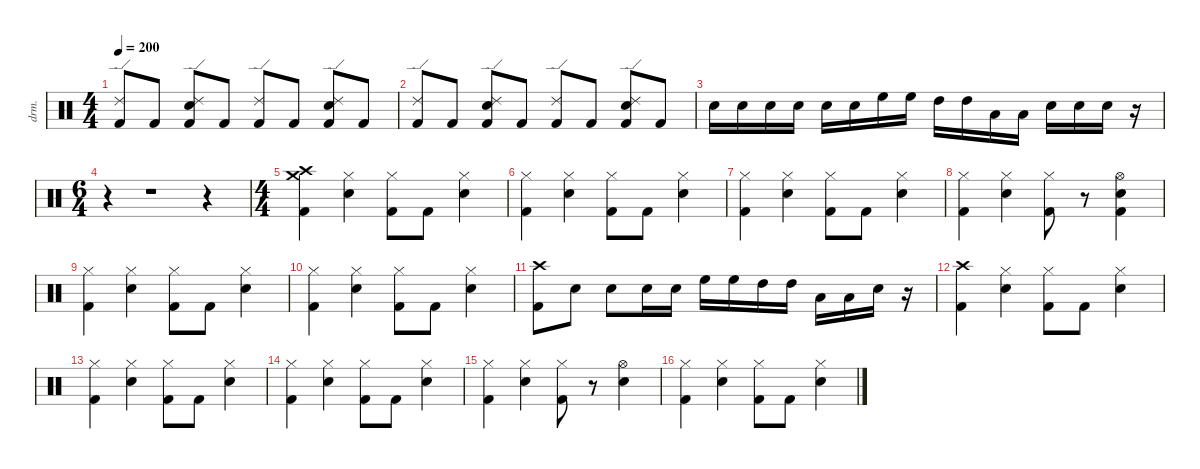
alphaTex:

\defaultSystemsLayout 4
\hideDynamics
\bracketExtendMode nobrackets
\track ("Drums" "drm.") {instrument percussion}
\staff {score}
\articulation defaults
\ts (4 4)
\tempo 200
\clef neutral
\ks c
("Ride (edge) 2" "Kick (hit) 2").8{dy f} "Kick (hit) 2".8 ("Ride (edge) 2" "Snare (hit) 2" "Kick (hit) 2").8 "Kick (hit) 2".8 ("Ride (edge) 2" "Kick (hit) 2").8 "Kick (hit) 2".8 ("Ride (edge) 2" "Snare (hit) 2" "Kick (hit) 2").8 "Kick (hit) 2".8 |
("Ride (edge) 2" "Kick (hit) 2").8 "Kick (hit) 2".8 ("Ride (edge) 2" "Snare (hit) 2" "Kick (hit) 2").8 "Kick (hit) 2".8 ("Ride (edge) 2" "Kick (hit) 2").8 "Kick (hit) 2".8 ("Ride (edge) 2" "Snare (hit) 2" "Kick (hit) 2").8 "Kick (hit) 2".8 |
"Snare (hit) 2".16{dy fff} "Snare (hit) 2".16 "Snare (hit) 2".16 "Snare (hit) 2".16{dy ff} "Snare (hit) 2".16 "Snare (hit) 2".16{dy f} "High Floor Tom (hit)".16{dy fff} "High Floor Tom (hit)".16 "High Tom (hit)".16 "High Tom (hit)".16 "Low Tom (hit)".16 "Low Tom (hit)".16 "Snare (hit) 2".16 "Snare (hit) 2".16 "Snare (hit) 2".16 r.16 |
\ts (6 4)
\beaming (8 6 6)
r.4 r.1 r.4 |
\ts (4 4)
\beaming (8 2 2 2 2)
("Crash high (hit)" "Crash medium (hit)" "Kick (hit) 2").4{dy mf} ("Hi-Hat (closed)" "Snare (hit) 2").4{dy f} ("Hi-Hat (closed)" "Kick (hit) 2").8 "Kick (hit) 2".8 ("Hi-Hat (closed)" "Snare (hit) 2").4 |
("Hi-Hat (closed)" "Kick (hit) 2").4 ("Hi-Hat (closed)" "Snare (hit) 2").4 ("Hi-Hat (closed)" "Kick (hit) 2").8 "Kick (hit) 2".8 ("Hi-Hat (closed)" "Snare (hit) 2").4 |
("Hi-Hat (closed)" "Kick (hit) 2").4 ("Hi-Hat (closed)" "Snare (hit) 2").4 ("Hi-Hat (closed)" "Kick (hit) 2").8 "Kick (hit) 2".8 ("Hi-Hat (closed)" "Snare (hit) 2").4 |
("Hi-Hat (closed)" "Kick (hit) 2").4 ("Hi-Hat (closed)" "Snare (hit) 2").4 ("Hi-Hat (closed)" "Kick (hit) 2").8 r.8 ("Hi-Hat (open)" "Snare (hit) 2" "Kick (hit) 2").4 |
("Hi-Hat (closed)" "Kick (hit) 2").4 ("Hi-Hat (closed)" "Snare (hit) 2").4 ("Hi-Hat (closed)" "Kick (hit) 2").8 "Kick (hit) 2".8 ("Hi-Hat (closed)" "Snare (hit) 2").4 |
("Hi-Hat (closed)" "Kick (hit) 2").4 ("Hi-Hat (closed)" "Snare (hit) 2").4 ("Hi-Hat (closed)" "Kick (hit) 2").8 "Kick (hit) 2".8 ("Hi-Hat (closed)" "Snare (hit) 2").4 |
("Crash high (hit)" "Kick (hit) 2").8 "Snare (hit) 2".8{dy ff} "Snare (hit) 2".8 "Snare (hit) 2".16 "Snare (hit) 2".16 "High Floor Tom (hit)".16 "High Floor Tom (hit)".16 "High Tom (hit)".16 "High Tom (hit)".16 "Low Tom (hit)".16 "Low Tom (hit)".16 "Snare (hit) 2".16 r.16 |
("Crash high (hit)" "Kick (hit) 2").4 ("Hi-Hat (closed)" "Snare (hit) 2").4{dy f} ("Hi-Hat (closed)" "Kick (hit) 2").8 "Kick (hit) 2".8 ("Hi-Hat (closed)" "Snare (hit) 2").4 |
("Hi-Hat (closed)" "Kick (hit) 2").4 ("Hi-Hat (closed)" "Snare (hit) 2").4 ("Hi-Hat (closed)" "Kick (hit) 2").8 "Kick (hit) 2".8 ("Hi-Hat (closed)" "Snare (hit) 2").4 |
("Hi-Hat (closed)" "Kick (hit) 2").4 ("Hi-Hat (closed)" "Snare (hit) 2").4 ("Hi-Hat (closed)" "Kick (hit) 2").8 "Kick (hit) 2".8 ("Hi-Hat (closed)" "Snare (hit) 2").4 |
("Hi-Hat (closed)" "Kick (hit) 2").4 ("Hi-Hat (closed)" "Snare (hit) 2").4 ("Hi-Hat (closed)" "Kick (hit) 2").8 r.8 ("Hi-Hat (open)" "Snare (hit) 2").4 |
("Hi-Hat (closed)" "Kick (hit) 2").4{dy ff} ("Hi-Hat (closed)" "Snare (hit) 2").4{dy f} ("Hi-Hat (closed)" "Kick (hit) 2").8 "Kick (hit) 2".8 ("Hi-Hat (closed)" "Snare (hit) 2").4
